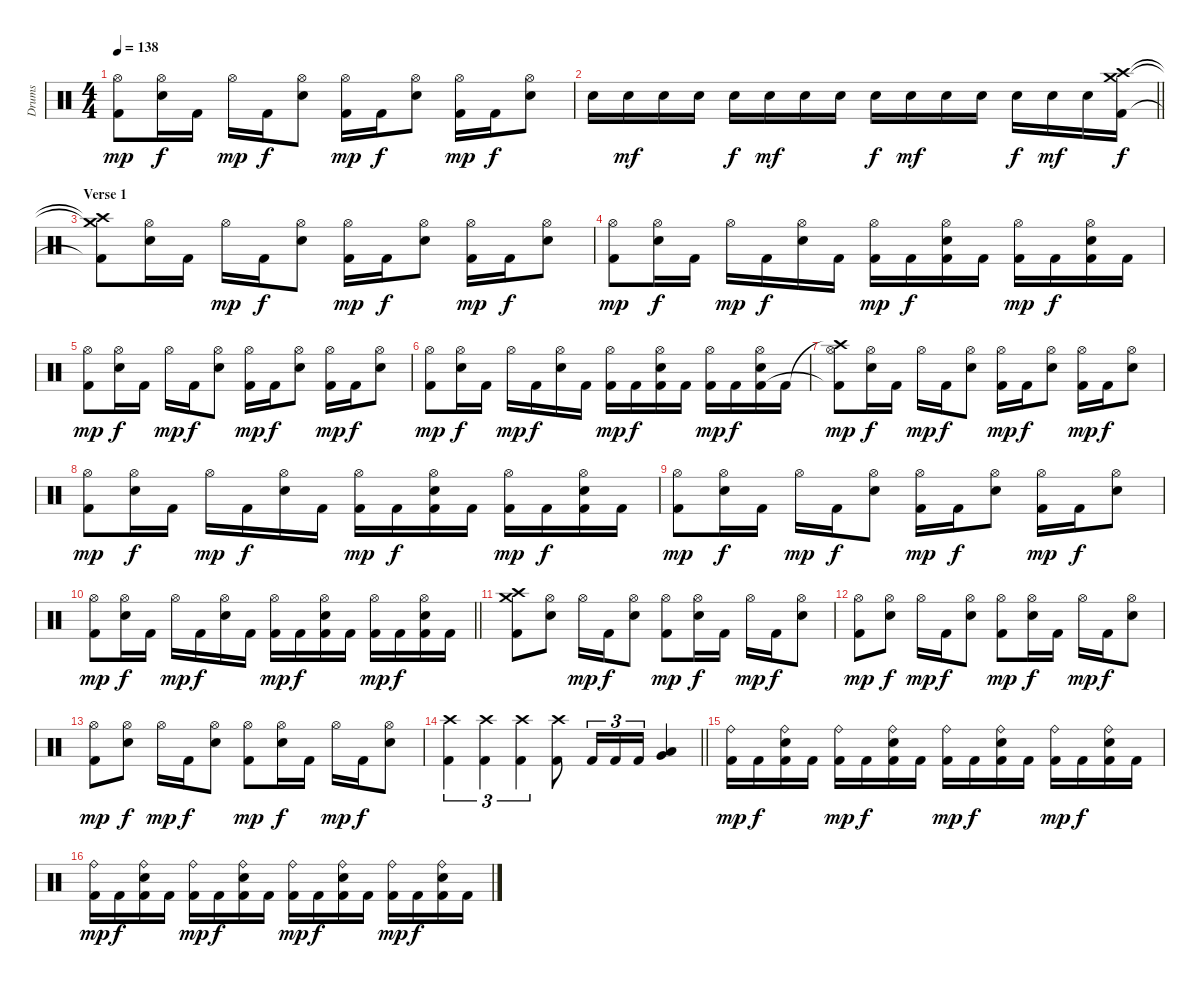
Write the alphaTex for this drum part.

\track ("Drums" "Drums") {instrument percussion}
\staff {score}
\articulation defaults
\ts (4 4)
\tempo 138
\clef neutral
\ks c
("Hi-Hat (open)" "Kick (hit) 2").8{dy mp} ("Hi-Hat (open)" "Electric Snare (hit)").16{dy f} "Kick (hit) 2".16 "Hi-Hat (open)".16{dy mp} "Kick (hit) 2".16{dy f} ("Hi-Hat (open)" "Electric Snare (hit)").8 ("Hi-Hat (open)" "Kick (hit) 2").16{dy mp} "Kick (hit) 2".16{dy f} ("Hi-Hat (open)" "Electric Snare (hit)").8 ("Hi-Hat (open)" "Kick (hit) 2").16{dy mp} "Kick (hit) 2".16{dy f} ("Hi-Hat (open)" "Electric Snare (hit)").8 |
\barLineRight lightlight "Electric Snare (hit)".16 "Electric Snare (hit)".16{dy mf} "Electric Snare (hit)".16 "Electric Snare (hit)".16 "Electric Snare (hit)".16{dy f} "Electric Snare (hit)".16{dy mf} "Electric Snare (hit)".16 "Electric Snare (hit)".16 "Electric Snare (hit)".16{dy f} "Electric Snare (hit)".16{dy mf} "Electric Snare (hit)".16 "Electric Snare (hit)".16 "Electric Snare (hit)".16{dy f} "Electric Snare (hit)".16{dy mf} "Electric Snare (hit)".16
("Crash high (hit)" "Crash medium (hit)" "Kick (hit) 2").16{dy f} |
\section ("" "Verse 1")
("Crash high (hit)"{t} "Crash medium (hit)"{t} "Kick (hit) 2"{t}).8 ("Hi-Hat (open)" "Electric Snare (hit)").16 "Kick (hit) 2".16 "Hi-Hat (open)".16{dy mp} "Kick (hit) 2".16{dy f} ("Hi-Hat (open)" "Electric Snare (hit)").8 ("Hi-Hat (open)" "Kick (hit) 2").16{dy mp} "Kick (hit) 2".16{dy f} ("Hi-Hat (open)" "Electric Snare (hit)").8 ("Hi-Hat (open)" "Kick (hit) 2").16{dy mp} "Kick (hit) 2".16{dy f} ("Hi-Hat (open)" "Electric Snare (hit)").8 |
("Hi-Hat (open)" "Kick (hit) 2").8{dy mp} ("Hi-Hat (open)" "Electric Snare (hit)").16{dy f} "Kick (hit) 2".16 "Hi-Hat (open)".16{dy mp} "Kick (hit) 2".16{dy f} ("Hi-Hat (open)" "Electric Snare (hit)").16 "Kick (hit) 2".16 ("Hi-Hat (open)" "Kick (hit) 2").16{dy mp} "Kick (hit) 2".16{dy f} ("Hi-Hat (open)" "Electric Snare (hit)" "Kick (hit) 2").16 "Kick (hit) 2".16 ("Hi-Hat (open)" "Kick (hit) 2").16{dy mp} "Kick (hit) 2".16{dy f} ("Hi-Hat (open)" "Electric Snare (hit)" "Kick (hit) 2").16 "Kick (hit) 2".16 |
("Hi-Hat (open)" "Kick (hit) 2").8{dy mp} ("Hi-Hat (open)" "Electric Snare (hit)").16{dy f} "Kick (hit) 2".16 "Hi-Hat (open)".16{dy mp} "Kick (hit) 2".16{dy f} ("Hi-Hat (open)" "Electric Snare (hit)").8 ("Hi-Hat (open)" "Kick (hit) 2").16{dy mp} "Kick (hit) 2".16{dy f} ("Hi-Hat (open)" "Electric Snare (hit)").8 ("Hi-Hat (open)" "Kick (hit) 2").16{dy mp} "Kick (hit) 2".16{dy f} ("Hi-Hat (open)" "Electric Snare (hit)").8 |
("Hi-Hat (open)" "Kick (hit) 2").8{dy mp} ("Hi-Hat (open)" "Electric Snare (hit)").16{dy f} "Kick (hit) 2".16 "Hi-Hat (open)".16{dy mp} "Kick (hit) 2".16{dy f} ("Hi-Hat (open)" "Electric Snare (hit)").16 "Kick (hit) 2".16 ("Hi-Hat (open)" "Kick (hit) 2").16{dy mp} "Kick (hit) 2".16{dy f} ("Hi-Hat (open)" "Electric Snare (hit)" "Kick (hit) 2").16 "Kick (hit) 2".16 ("Hi-Hat (open)" "Kick (hit) 2").16{dy mp} "Kick (hit) 2".16{dy f} ("Hi-Hat (open)" "Electric Snare (hit)" "Kick (hit) 2").16 "Kick (hit) 2".16 |
("Crash high (hit)"{t} "Hi-Hat (open)" "Kick (hit) 2"{t}).8{dy mp} ("Hi-Hat (open)" "Electric Snare (hit)").16{dy f} "Kick (hit) 2".16 "Hi-Hat (open)".16{dy mp} "Kick (hit) 2".16{dy f} ("Hi-Hat (open)" "Electric Snare (hit)").8 ("Hi-Hat (open)" "Kick (hit) 2").16{dy mp} "Kick (hit) 2".16{dy f} ("Hi-Hat (open)" "Electric Snare (hit)").8 ("Hi-Hat (open)" "Kick (hit) 2").16{dy mp} "Kick (hit) 2".16{dy f} ("Hi-Hat (open)" "Electric Snare (hit)").8 |
("Hi-Hat (open)" "Kick (hit) 2").8{dy mp} ("Hi-Hat (open)" "Electric Snare (hit)").16{dy f} "Kick (hit) 2".16 "Hi-Hat (open)".16{dy mp} "Kick (hit) 2".16{dy f} ("Hi-Hat (open)" "Electric Snare (hit)").16 "Kick (hit) 2".16 ("Hi-Hat (open)" "Kick (hit) 2").16{dy mp} "Kick (hit) 2".16{dy f} ("Hi-Hat (open)" "Electric Snare (hit)" "Kick (hit) 2").16 "Kick (hit) 2".16 ("Hi-Hat (open)" "Kick (hit) 2").16{dy mp} "Kick (hit) 2".16{dy f} ("Hi-Hat (open)" "Electric Snare (hit)" "Kick (hit) 2").16 "Kick (hit) 2".16 |
("Hi-Hat (open)" "Kick (hit) 2").8{dy mp} ("Hi-Hat (open)" "Electric Snare (hit)").16{dy f} "Kick (hit) 2".16 "Hi-Hat (open)".16{dy mp} "Kick (hit) 2".16{dy f} ("Hi-Hat (open)" "Electric Snare (hit)").8 ("Hi-Hat (open)" "Kick (hit) 2").16{dy mp} "Kick (hit) 2".16{dy f} ("Hi-Hat (open)" "Electric Snare (hit)").8 ("Hi-Hat (open)" "Kick (hit) 2").16{dy mp} "Kick (hit) 2".16{dy f} ("Hi-Hat (open)" "Electric Snare (hit)").8 |
\barLineRight lightlight
("Hi-Hat (open)" "Kick (hit) 2").8{dy mp} ("Hi-Hat (open)" "Electric Snare (hit)").16{dy f} "Kick (hit) 2".16 "Hi-Hat (open)".16{dy mp} "Kick (hit) 2".16{dy f} ("Hi-Hat (open)" "Electric Snare (hit)").16 "Kick (hit) 2".16 ("Hi-Hat (open)" "Kick (hit) 2").16{dy mp} "Kick (hit) 2".16{dy f} ("Hi-Hat (open)" "Electric Snare (hit)" "Kick (hit) 2").16 "Kick (hit) 2".16 ("Hi-Hat (open)" "Kick (hit) 2").16{dy mp} "Kick (hit) 2".16{dy f} ("Hi-Hat (open)" "Electric Snare (hit)" "Kick (hit) 2").16 "Kick (hit) 2".16 |
("Crash high (hit)" "Crash medium (hit)" "Kick (hit) 2").8 ("Hi-Hat (open)" "Electric Snare (hit)").8 "Hi-Hat (open)".16{dy mp} "Kick (hit) 2".16{dy f} ("Hi-Hat (open)" "Electric Snare (hit)").8 ("Hi-Hat (open)" "Kick (hit) 2").8{dy mp} ("Hi-Hat (open)" "Electric Snare (hit)").16{dy f} "Kick (hit) 2".16 "Hi-Hat (open)".16{dy mp} "Kick (hit) 2".16{dy f} ("Hi-Hat (open)" "Electric Snare (hit)").8 |
("Hi-Hat (open)" "Kick (hit) 2").8{dy mp} ("Hi-Hat (open)" "Electric Snare (hit)").8{dy f} "Hi-Hat (open)".16{dy mp} "Kick (hit) 2".16{dy f} ("Hi-Hat (open)" "Electric Snare (hit)").8 ("Hi-Hat (open)" "Kick (hit) 2").8{dy mp} ("Hi-Hat (open)" "Electric Snare (hit)").16{dy f} "Kick (hit) 2".16 "Hi-Hat (open)".16{dy mp} "Kick (hit) 2".16{dy f} ("Hi-Hat (open)" "Electric Snare (hit)").8 |
("Hi-Hat (open)" "Kick (hit) 2").8{dy mp} ("Hi-Hat (open)" "Electric Snare (hit)").8{dy f} "Hi-Hat (open)".16{dy mp} "Kick (hit) 2".16{dy f} ("Hi-Hat (open)" "Electric Snare (hit)").8 ("Hi-Hat (open)" "Kick (hit) 2").8{dy mp} ("Hi-Hat (open)" "Electric Snare (hit)").16{dy f} "Kick (hit) 2".16 "Hi-Hat (open)".16{dy mp} "Kick (hit) 2".16{dy f} ("Hi-Hat (open)" "Electric Snare (hit)").8 |
\barLineRight lightlight
("Crash high (hit)" "Kick (hit) 2").4{tu (3 2)} ("Crash high (hit)" "Kick (hit) 2").4{tu (3 2)} ("Crash high (hit)" "Kick (hit) 2").4{tu (3 2)} ("Crash high (hit)" "Kick (hit) 2").8 "Kick (hit) 2".16{tu (3 2)} "Kick (hit) 2".16{tu (3 2)} "Kick (hit) 2".16{tu (3 2)} ("Low Tom (hit)" "Very Low Tom (hit)").4 |
("Ride (bell)" "Kick (hit) 2").16{dy mp} "Kick (hit) 2".16{dy f} ("Ride (bell)" "Electric Snare (hit)" "Kick (hit) 2").16 "Kick (hit) 2".16 ("Ride (bell)" "Kick (hit) 2").16{dy mp} "Kick (hit) 2".16{dy f} ("Ride (bell)" "Electric Snare (hit)" "Kick (hit) 2").16 "Kick (hit) 2".16 ("Ride (bell)" "Kick (hit) 2").16{dy mp} "Kick (hit) 2".16{dy f} ("Ride (bell)" "Electric Snare (hit)" "Kick (hit) 2").16 "Kick (hit) 2".16 ("Ride (bell)" "Kick (hit) 2").16{dy mp} "Kick (hit) 2".16{dy f} ("Ride (bell)" "Electric Snare (hit)" "Kick (hit) 2").16 "Kick (hit) 2".16 |
("Ride (bell)" "Kick (hit) 2").16{dy mp} "Kick (hit) 2".16{dy f} ("Ride (bell)" "Electric Snare (hit)" "Kick (hit) 2").16 "Kick (hit) 2".16 ("Ride (bell)" "Kick (hit) 2").16{dy mp} "Kick (hit) 2".16{dy f} ("Ride (bell)" "Electric Snare (hit)" "Kick (hit) 2").16 "Kick (hit) 2".16 ("Ride (bell)" "Kick (hit) 2").16{dy mp} "Kick (hit) 2".16{dy f} ("Ride (bell)" "Electric Snare (hit)" "Kick (hit) 2").16 "Kick (hit) 2".16 ("Ride (bell)" "Kick (hit) 2").16{dy mp} "Kick (hit) 2".16{dy f} ("Ride (bell)" "Electric Snare (hit)" "Kick (hit) 2").16 "Kick (hit) 2".16
